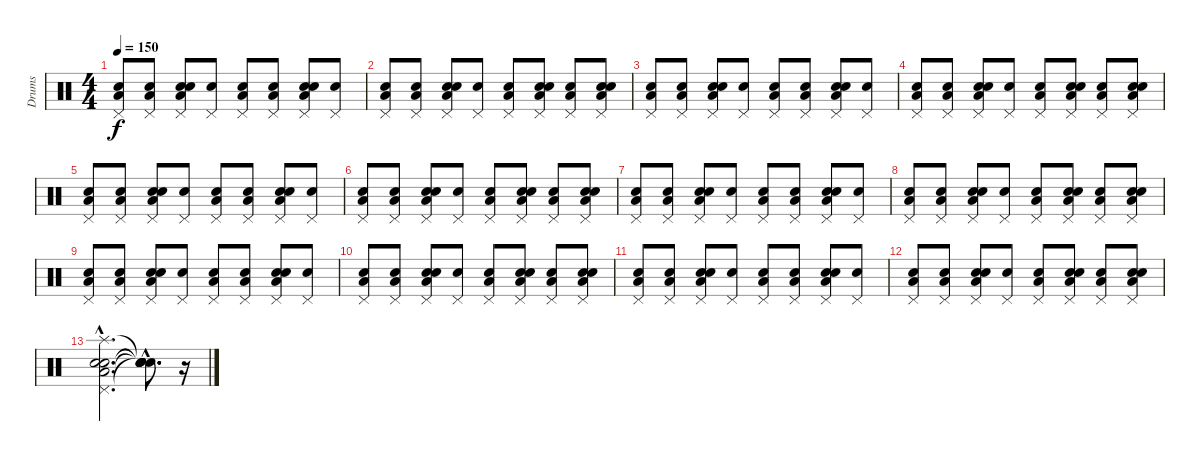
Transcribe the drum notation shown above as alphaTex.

\track ("Drums" "Drums") {instrument percussion}
\staff {score}
\articulation defaults
\ts (4 4)
\tempo 150
\clef neutral
\ks c
("Snare (hit)" "Low Floor Tom (hit)" "Pedal Hi-Hat (hit)").8{dy f} ("Snare (hit)" "Low Floor Tom (hit)" "Pedal Hi-Hat (hit)").8 ("Snare (hit)" "Electric Snare (hit)" "Low Floor Tom (hit)" "Pedal Hi-Hat (hit)").8 ("Snare (hit)" "Pedal Hi-Hat (hit)").8 ("Snare (hit)" "Low Floor Tom (hit)" "Pedal Hi-Hat (hit)").8 ("Snare (hit)" "Low Floor Tom (hit)" "Pedal Hi-Hat (hit)").8 ("Snare (hit)" "Electric Snare (hit)" "Low Floor Tom (hit)" "Pedal Hi-Hat (hit)").8 ("Snare (hit)" "Pedal Hi-Hat (hit)").8 |
("Snare (hit)" "Low Floor Tom (hit)" "Pedal Hi-Hat (hit)").8 ("Snare (hit)" "Low Floor Tom (hit)" "Pedal Hi-Hat (hit)").8 ("Snare (hit)" "Electric Snare (hit)" "Low Floor Tom (hit)" "Pedal Hi-Hat (hit)").8 ("Snare (hit)" "Pedal Hi-Hat (hit)").8 ("Snare (hit)" "Low Floor Tom (hit)" "Pedal Hi-Hat (hit)").8 ("Snare (hit)" "Electric Snare (hit)" "Low Floor Tom (hit)" "Pedal Hi-Hat (hit)").8 ("Snare (hit)" "Low Floor Tom (hit)" "Pedal Hi-Hat (hit)").8 ("Snare (hit)" "Electric Snare (hit)" "Low Floor Tom (hit)" "Pedal Hi-Hat (hit)").8 |
("Snare (hit)" "Low Floor Tom (hit)" "Pedal Hi-Hat (hit)").8 ("Snare (hit)" "Low Floor Tom (hit)" "Pedal Hi-Hat (hit)").8 ("Snare (hit)" "Electric Snare (hit)" "Low Floor Tom (hit)" "Pedal Hi-Hat (hit)").8 ("Snare (hit)" "Pedal Hi-Hat (hit)").8 ("Snare (hit)" "Low Floor Tom (hit)" "Pedal Hi-Hat (hit)").8 ("Snare (hit)" "Low Floor Tom (hit)" "Pedal Hi-Hat (hit)").8 ("Snare (hit)" "Electric Snare (hit)" "Low Floor Tom (hit)" "Pedal Hi-Hat (hit)").8 ("Snare (hit)" "Pedal Hi-Hat (hit)").8 |
("Snare (hit)" "Low Floor Tom (hit)" "Pedal Hi-Hat (hit)").8 ("Snare (hit)" "Low Floor Tom (hit)" "Pedal Hi-Hat (hit)").8 ("Snare (hit)" "Electric Snare (hit)" "Low Floor Tom (hit)" "Pedal Hi-Hat (hit)").8 ("Snare (hit)" "Pedal Hi-Hat (hit)").8 ("Snare (hit)" "Low Floor Tom (hit)" "Pedal Hi-Hat (hit)").8 ("Snare (hit)" "Electric Snare (hit)" "Low Floor Tom (hit)" "Pedal Hi-Hat (hit)").8 ("Snare (hit)" "Low Floor Tom (hit)" "Pedal Hi-Hat (hit)").8 ("Snare (hit)" "Electric Snare (hit)" "Low Floor Tom (hit)" "Pedal Hi-Hat (hit)").8 |
("Snare (hit)" "Low Floor Tom (hit)" "Pedal Hi-Hat (hit)").8 ("Snare (hit)" "Low Floor Tom (hit)" "Pedal Hi-Hat (hit)").8 ("Snare (hit)" "Electric Snare (hit)" "Low Floor Tom (hit)" "Pedal Hi-Hat (hit)").8 ("Snare (hit)" "Pedal Hi-Hat (hit)").8 ("Snare (hit)" "Low Floor Tom (hit)" "Pedal Hi-Hat (hit)").8 ("Snare (hit)" "Low Floor Tom (hit)" "Pedal Hi-Hat (hit)").8 ("Snare (hit)" "Electric Snare (hit)" "Low Floor Tom (hit)" "Pedal Hi-Hat (hit)").8 ("Snare (hit)" "Pedal Hi-Hat (hit)").8 |
("Snare (hit)" "Low Floor Tom (hit)" "Pedal Hi-Hat (hit)").8 ("Snare (hit)" "Low Floor Tom (hit)" "Pedal Hi-Hat (hit)").8 ("Snare (hit)" "Electric Snare (hit)" "Low Floor Tom (hit)" "Pedal Hi-Hat (hit)").8 ("Snare (hit)" "Pedal Hi-Hat (hit)").8 ("Snare (hit)" "Low Floor Tom (hit)" "Pedal Hi-Hat (hit)").8 ("Snare (hit)" "Electric Snare (hit)" "Low Floor Tom (hit)" "Pedal Hi-Hat (hit)").8 ("Snare (hit)" "Low Floor Tom (hit)" "Pedal Hi-Hat (hit)").8 ("Snare (hit)" "Electric Snare (hit)" "Low Floor Tom (hit)" "Pedal Hi-Hat (hit)").8 |
("Snare (hit)" "Low Floor Tom (hit)" "Pedal Hi-Hat (hit)").8 ("Snare (hit)" "Low Floor Tom (hit)" "Pedal Hi-Hat (hit)").8 ("Snare (hit)" "Electric Snare (hit)" "Low Floor Tom (hit)" "Pedal Hi-Hat (hit)").8 ("Snare (hit)" "Pedal Hi-Hat (hit)").8 ("Snare (hit)" "Low Floor Tom (hit)" "Pedal Hi-Hat (hit)").8 ("Snare (hit)" "Low Floor Tom (hit)" "Pedal Hi-Hat (hit)").8 ("Snare (hit)" "Electric Snare (hit)" "Low Floor Tom (hit)" "Pedal Hi-Hat (hit)").8 ("Snare (hit)" "Pedal Hi-Hat (hit)").8 |
("Snare (hit)" "Low Floor Tom (hit)" "Pedal Hi-Hat (hit)").8 ("Snare (hit)" "Low Floor Tom (hit)" "Pedal Hi-Hat (hit)").8 ("Snare (hit)" "Electric Snare (hit)" "Low Floor Tom (hit)" "Pedal Hi-Hat (hit)").8 ("Snare (hit)" "Pedal Hi-Hat (hit)").8 ("Snare (hit)" "Low Floor Tom (hit)" "Pedal Hi-Hat (hit)").8 ("Snare (hit)" "Electric Snare (hit)" "Low Floor Tom (hit)" "Pedal Hi-Hat (hit)").8 ("Snare (hit)" "Low Floor Tom (hit)" "Pedal Hi-Hat (hit)").8 ("Snare (hit)" "Electric Snare (hit)" "Low Floor Tom (hit)" "Pedal Hi-Hat (hit)").8 |
("Snare (hit)" "Low Floor Tom (hit)" "Pedal Hi-Hat (hit)").8 ("Snare (hit)" "Low Floor Tom (hit)" "Pedal Hi-Hat (hit)").8 ("Snare (hit)" "Electric Snare (hit)" "Low Floor Tom (hit)" "Pedal Hi-Hat (hit)").8 ("Snare (hit)" "Pedal Hi-Hat (hit)").8 ("Snare (hit)" "Low Floor Tom (hit)" "Pedal Hi-Hat (hit)").8 ("Snare (hit)" "Low Floor Tom (hit)" "Pedal Hi-Hat (hit)").8 ("Snare (hit)" "Electric Snare (hit)" "Low Floor Tom (hit)" "Pedal Hi-Hat (hit)").8 ("Snare (hit)" "Pedal Hi-Hat (hit)").8 |
("Snare (hit)" "Low Floor Tom (hit)" "Pedal Hi-Hat (hit)").8 ("Snare (hit)" "Low Floor Tom (hit)" "Pedal Hi-Hat (hit)").8 ("Snare (hit)" "Electric Snare (hit)" "Low Floor Tom (hit)" "Pedal Hi-Hat (hit)").8 ("Snare (hit)" "Pedal Hi-Hat (hit)").8 ("Snare (hit)" "Low Floor Tom (hit)" "Pedal Hi-Hat (hit)").8 ("Snare (hit)" "Electric Snare (hit)" "Low Floor Tom (hit)" "Pedal Hi-Hat (hit)").8 ("Snare (hit)" "Low Floor Tom (hit)" "Pedal Hi-Hat (hit)").8 ("Snare (hit)" "Electric Snare (hit)" "Low Floor Tom (hit)" "Pedal Hi-Hat (hit)").8 |
("Snare (hit)" "Low Floor Tom (hit)" "Pedal Hi-Hat (hit)").8 ("Snare (hit)" "Low Floor Tom (hit)" "Pedal Hi-Hat (hit)").8 ("Snare (hit)" "Electric Snare (hit)" "Low Floor Tom (hit)" "Pedal Hi-Hat (hit)").8 ("Snare (hit)" "Pedal Hi-Hat (hit)").8 ("Snare (hit)" "Low Floor Tom (hit)" "Pedal Hi-Hat (hit)").8 ("Snare (hit)" "Low Floor Tom (hit)" "Pedal Hi-Hat (hit)").8 ("Snare (hit)" "Electric Snare (hit)" "Low Floor Tom (hit)" "Pedal Hi-Hat (hit)").8 ("Snare (hit)" "Pedal Hi-Hat (hit)").8 |
("Snare (hit)" "Low Floor Tom (hit)" "Pedal Hi-Hat (hit)").8 ("Snare (hit)" "Low Floor Tom (hit)" "Pedal Hi-Hat (hit)").8 ("Snare (hit)" "Electric Snare (hit)" "Low Floor Tom (hit)" "Pedal Hi-Hat (hit)").8 ("Snare (hit)" "Pedal Hi-Hat (hit)").8 ("Snare (hit)" "Low Floor Tom (hit)" "Pedal Hi-Hat (hit)").8 ("Snare (hit)" "Electric Snare (hit)" "Low Floor Tom (hit)" "Pedal Hi-Hat (hit)").8 ("Snare (hit)" "Low Floor Tom (hit)" "Pedal Hi-Hat (hit)").8 ("Snare (hit)" "Electric Snare (hit)" "Low Floor Tom (hit)" "Pedal Hi-Hat (hit)").8 |
("Snare (hit)"{hac} "Electric Snare (hit)"{hac} "Low Floor Tom (hit)"{hac} "Pedal Hi-Hat (hit)"{hac} "Splash (hit)"{hac}).2{d} ("Snare (hit)"{hac t} "Snare (hit)"{hac t} "Snare (hit)"{hac t} "Snare (hit)"{hac t} "Snare (hit)"{hac t}).8{d} r.16
